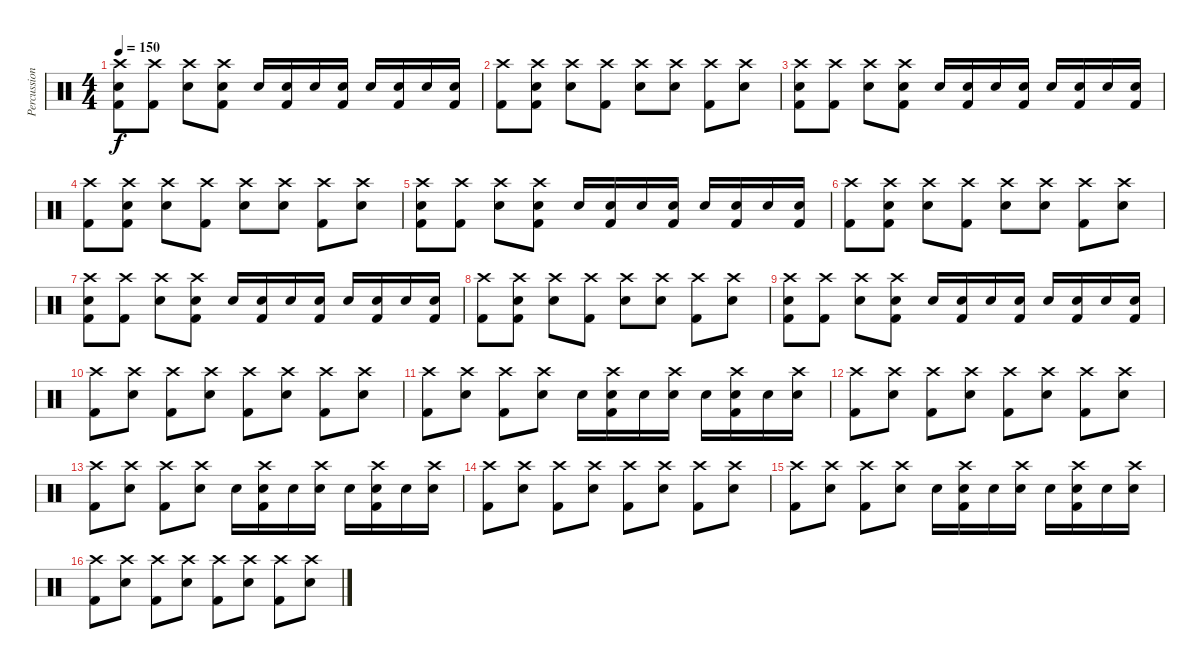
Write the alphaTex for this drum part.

\track ("Percussion" "Percussion") {instrument percussion}
\staff {score}
\articulation defaults
\ts (4 4)
\tempo 150
\clef neutral
\ks c
("Crash high (hit)" "Electric Snare (hit)" "Kick (hit) 2").8{dy f} ("Crash high (hit)" "Kick (hit) 2").8 ("Crash high (hit)" "Snare (hit) 2").8 ("Crash high (hit)" "Electric Snare (hit)" "Kick (hit) 2").8 "Electric Snare (hit)".16 ("Electric Snare (hit)" "Kick (hit) 2").16 "Electric Snare (hit)".16 ("Electric Snare (hit)" "Kick (hit) 2").16 "Electric Snare (hit)".16 ("Electric Snare (hit)" "Kick (hit) 2").16 "Electric Snare (hit)".16 ("Electric Snare (hit)" "Kick (hit) 2").16 |
("Crash high (hit)" "Kick (hit) 2").8 ("Crash high (hit)" "Snare (hit) 2" "Kick (hit) 2").8 ("Crash high (hit)" "Electric Snare (hit)").8 ("Crash high (hit)" "Kick (hit) 2").8 ("Crash high (hit)" "Snare (hit) 2").8 ("Crash high (hit)" "Electric Snare (hit)").8 ("Crash high (hit)" "Kick (hit) 2").8 ("Crash high (hit)" "Snare (hit) 2").8 |
("Crash high (hit)" "Electric Snare (hit)" "Kick (hit) 2").8 ("Crash high (hit)" "Kick (hit) 2").8 ("Crash high (hit)" "Snare (hit) 2").8 ("Crash high (hit)" "Electric Snare (hit)" "Kick (hit) 2").8 "Electric Snare (hit)".16 ("Electric Snare (hit)" "Kick (hit) 2").16 "Electric Snare (hit)".16 ("Electric Snare (hit)" "Kick (hit) 2").16 "Electric Snare (hit)".16 ("Electric Snare (hit)" "Kick (hit) 2").16 "Electric Snare (hit)".16 ("Electric Snare (hit)" "Kick (hit) 2").16 |
("Crash high (hit)" "Kick (hit) 2").8 ("Crash high (hit)" "Snare (hit) 2" "Kick (hit) 2").8 ("Crash high (hit)" "Electric Snare (hit)").8 ("Crash high (hit)" "Kick (hit) 2").8 ("Crash high (hit)" "Snare (hit) 2").8 ("Crash high (hit)" "Electric Snare (hit)").8 ("Crash high (hit)" "Kick (hit) 2").8 ("Crash high (hit)" "Snare (hit) 2").8 |
("Crash high (hit)" "Electric Snare (hit)" "Kick (hit) 2").8 ("Crash high (hit)" "Kick (hit) 2").8 ("Crash high (hit)" "Snare (hit) 2").8 ("Crash high (hit)" "Electric Snare (hit)" "Kick (hit) 2").8 "Electric Snare (hit)".16 ("Electric Snare (hit)" "Kick (hit) 2").16 "Electric Snare (hit)".16 ("Electric Snare (hit)" "Kick (hit) 2").16 "Electric Snare (hit)".16 ("Electric Snare (hit)" "Kick (hit) 2").16 "Electric Snare (hit)".16 ("Electric Snare (hit)" "Kick (hit) 2").16 |
("Crash high (hit)" "Kick (hit) 2").8 ("Crash high (hit)" "Snare (hit) 2" "Kick (hit) 2").8 ("Crash high (hit)" "Electric Snare (hit)").8 ("Crash high (hit)" "Kick (hit) 2").8 ("Crash high (hit)" "Snare (hit) 2").8 ("Crash high (hit)" "Electric Snare (hit)").8 ("Crash high (hit)" "Kick (hit) 2").8 ("Crash high (hit)" "Snare (hit) 2").8 |
("Crash high (hit)" "Electric Snare (hit)" "Kick (hit) 2").8 ("Crash high (hit)" "Kick (hit) 2").8 ("Crash high (hit)" "Snare (hit) 2").8 ("Crash high (hit)" "Electric Snare (hit)" "Kick (hit) 2").8 "Electric Snare (hit)".16 ("Electric Snare (hit)" "Kick (hit) 2").16 "Electric Snare (hit)".16 ("Electric Snare (hit)" "Kick (hit) 2").16 "Electric Snare (hit)".16 ("Electric Snare (hit)" "Kick (hit) 2").16 "Electric Snare (hit)".16 ("Electric Snare (hit)" "Kick (hit) 2").16 |
("Crash high (hit)" "Kick (hit) 2").8 ("Crash high (hit)" "Snare (hit) 2" "Kick (hit) 2").8 ("Crash high (hit)" "Electric Snare (hit)").8 ("Crash high (hit)" "Kick (hit) 2").8 ("Crash high (hit)" "Snare (hit) 2").8 ("Crash high (hit)" "Electric Snare (hit)").8 ("Crash high (hit)" "Kick (hit) 2").8 ("Crash high (hit)" "Snare (hit) 2").8 |
("Crash high (hit)" "Electric Snare (hit)" "Kick (hit) 2").8 ("Crash high (hit)" "Kick (hit) 2").8 ("Crash high (hit)" "Snare (hit) 2").8 ("Crash high (hit)" "Electric Snare (hit)" "Kick (hit) 2").8 "Electric Snare (hit)".16 ("Electric Snare (hit)" "Kick (hit) 2").16 "Electric Snare (hit)".16 ("Electric Snare (hit)" "Kick (hit) 2").16 "Electric Snare (hit)".16 ("Electric Snare (hit)" "Kick (hit) 2").16 "Electric Snare (hit)".16 ("Electric Snare (hit)" "Kick (hit) 2").16 |
("Crash high (hit)" "Kick (hit) 2").8 ("Crash high (hit)" "Electric Snare (hit)").8 ("Crash high (hit)" "Kick (hit) 2").8 ("Crash high (hit)" "Electric Snare (hit)").8 ("Crash high (hit)" "Kick (hit) 2").8 ("Crash high (hit)" "Electric Snare (hit)").8 ("Crash high (hit)" "Kick (hit) 2").8 ("Crash high (hit)" "Electric Snare (hit)").8 |
("Crash high (hit)" "Kick (hit) 2").8 ("Crash high (hit)" "Electric Snare (hit)").8 ("Crash high (hit)" "Kick (hit) 2").8 ("Crash high (hit)" "Electric Snare (hit)").8 "Electric Snare (hit)".16 ("Crash high (hit)" "Electric Snare (hit)" "Kick (hit) 2").16 "Electric Snare (hit)".16 ("Crash high (hit)" "Electric Snare (hit)").16 "Electric Snare (hit)".16 ("Crash high (hit)" "Electric Snare (hit)" "Kick (hit) 2").16 "Electric Snare (hit)".16 ("Crash high (hit)" "Electric Snare (hit)").16 |
("Crash high (hit)" "Kick (hit) 2").8 ("Crash high (hit)" "Electric Snare (hit)").8 ("Crash high (hit)" "Kick (hit) 2").8 ("Crash high (hit)" "Electric Snare (hit)").8 ("Crash high (hit)" "Kick (hit) 2").8 ("Crash high (hit)" "Electric Snare (hit)").8 ("Crash high (hit)" "Kick (hit) 2").8 ("Crash high (hit)" "Electric Snare (hit)").8 |
("Crash high (hit)" "Kick (hit) 2").8 ("Crash high (hit)" "Electric Snare (hit)").8 ("Crash high (hit)" "Kick (hit) 2").8 ("Crash high (hit)" "Electric Snare (hit)").8 "Electric Snare (hit)".16 ("Crash high (hit)" "Electric Snare (hit)" "Kick (hit) 2").16 "Electric Snare (hit)".16 ("Crash high (hit)" "Electric Snare (hit)").16 "Electric Snare (hit)".16 ("Crash high (hit)" "Electric Snare (hit)" "Kick (hit) 2").16 "Electric Snare (hit)".16 ("Crash high (hit)" "Electric Snare (hit)").16 |
("Crash high (hit)" "Kick (hit) 2").8 ("Crash high (hit)" "Electric Snare (hit)").8 ("Crash high (hit)" "Kick (hit) 2").8 ("Crash high (hit)" "Electric Snare (hit)").8 ("Crash high (hit)" "Kick (hit) 2").8 ("Crash high (hit)" "Electric Snare (hit)").8 ("Crash high (hit)" "Kick (hit) 2").8 ("Crash high (hit)" "Electric Snare (hit)").8 |
("Crash high (hit)" "Kick (hit) 2").8 ("Crash high (hit)" "Electric Snare (hit)").8 ("Crash high (hit)" "Kick (hit) 2").8 ("Crash high (hit)" "Electric Snare (hit)").8 "Electric Snare (hit)".16 ("Crash high (hit)" "Electric Snare (hit)" "Kick (hit) 2").16 "Electric Snare (hit)".16 ("Crash high (hit)" "Electric Snare (hit)").16 "Electric Snare (hit)".16 ("Crash high (hit)" "Electric Snare (hit)" "Kick (hit) 2").16 "Electric Snare (hit)".16 ("Crash high (hit)" "Electric Snare (hit)").16 |
("Crash high (hit)" "Kick (hit) 2").8 ("Crash high (hit)" "Electric Snare (hit)").8 ("Crash high (hit)" "Kick (hit) 2").8 ("Crash high (hit)" "Electric Snare (hit)").8 ("Crash high (hit)" "Kick (hit) 2").8 ("Crash high (hit)" "Electric Snare (hit)").8 ("Crash high (hit)" "Kick (hit) 2").8 ("Crash high (hit)" "Electric Snare (hit)").8
